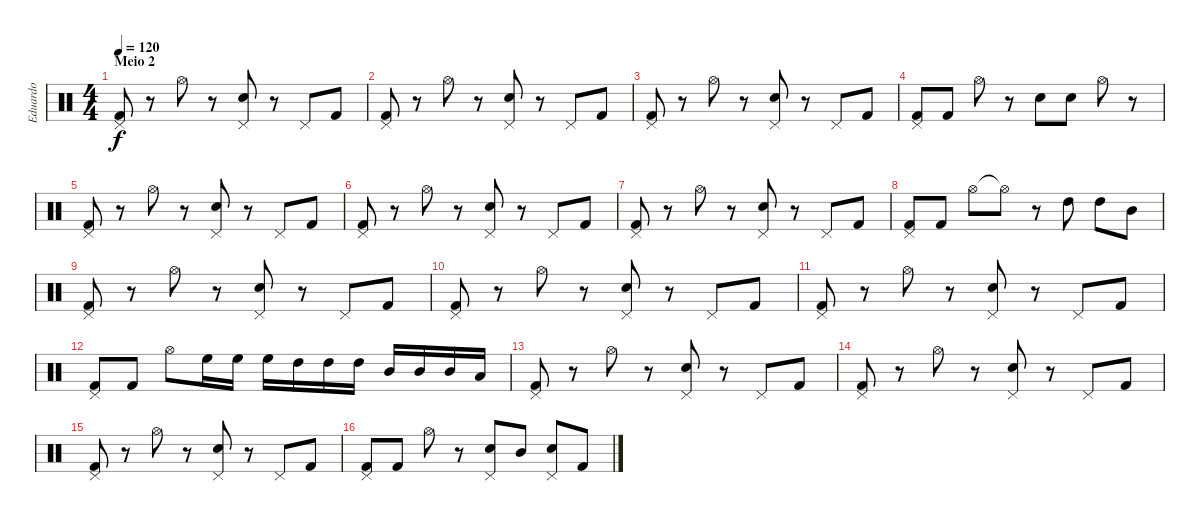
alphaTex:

\track ("Eduardo" "Eduardo") {instrument percussion}
\staff {score}
\articulation defaults
\ts (4 4)
\section ("" "Meio 2")
\tempo 120
\clef neutral
\ks c
("Pedal Hi-Hat (hit)" "Kick (hit) 2").8{dy f} r.8 "Hi-Hat (open)".8 r.8 ("Pedal Hi-Hat (hit)" "Snare (hit) 2").8 r.8 "Pedal Hi-Hat (hit)".8 "Kick (hit) 2".8 |
("Pedal Hi-Hat (hit)" "Kick (hit) 2").8 r.8 "Hi-Hat (open)".8 r.8 ("Pedal Hi-Hat (hit)" "Snare (hit) 2").8 r.8 "Pedal Hi-Hat (hit)".8 "Kick (hit) 2".8 |
("Pedal Hi-Hat (hit)" "Kick (hit) 2").8 r.8 "Hi-Hat (open)".8 r.8 ("Pedal Hi-Hat (hit)" "Snare (hit) 2").8 r.8 "Pedal Hi-Hat (hit)".8 "Kick (hit) 2".8 |
("Pedal Hi-Hat (hit)" "Kick (hit) 2").8 "Kick (hit) 2".8 "Hi-Hat (open)".8 r.8 "Snare (hit) 2".8 "Snare (hit) 2".8 "Hi-Hat (open)".8 r.8 |
("Pedal Hi-Hat (hit)" "Kick (hit) 2").8 r.8 "Hi-Hat (open)".8 r.8 ("Pedal Hi-Hat (hit)" "Snare (hit) 2").8 r.8 "Pedal Hi-Hat (hit)".8 "Kick (hit) 2".8 |
("Pedal Hi-Hat (hit)" "Kick (hit) 2").8 r.8 "Hi-Hat (open)".8 r.8 ("Pedal Hi-Hat (hit)" "Snare (hit) 2").8 r.8 "Pedal Hi-Hat (hit)".8 "Kick (hit) 2".8 |
("Pedal Hi-Hat (hit)" "Kick (hit) 2").8 r.8 "Hi-Hat (open)".8 r.8 ("Pedal Hi-Hat (hit)" "Snare (hit) 2").8 r.8 "Pedal Hi-Hat (hit)".8 "Kick (hit) 2".8 |
("Pedal Hi-Hat (hit)" "Kick (hit) 2").8 "Kick (hit) 2".8 "Hi-Hat (open)".8 "Hi-Hat (open)"{t}.8 r.8 "High Tom (hit)".8 "High Tom (hit)".8 "Mid Tom (hit)".8 |
("Pedal Hi-Hat (hit)" "Kick (hit) 2").8 r.8 "Hi-Hat (open)".8 r.8 ("Pedal Hi-Hat (hit)" "Snare (hit) 2").8 r.8 "Pedal Hi-Hat (hit)".8 "Kick (hit) 2".8 |
("Pedal Hi-Hat (hit)" "Kick (hit) 2").8 r.8 "Hi-Hat (open)".8 r.8 ("Pedal Hi-Hat (hit)" "Snare (hit) 2").8 r.8 "Pedal Hi-Hat (hit)".8 "Kick (hit) 2".8 |
("Pedal Hi-Hat (hit)" "Kick (hit) 2").8 r.8 "Hi-Hat (open)".8 r.8 ("Pedal Hi-Hat (hit)" "Snare (hit) 2").8 r.8 "Pedal Hi-Hat (hit)".8 "Kick (hit) 2".8 |
("Pedal Hi-Hat (hit)" "Kick (hit) 2").8 "Kick (hit) 2".8 "Hi-Hat (open)".8 "High Floor Tom (hit)".16 "High Floor Tom (hit)".16 "High Floor Tom (hit)".16 "High Tom (hit)".16 "High Tom (hit)".16 "High Tom (hit)".16 "Mid Tom (hit)".16 "Mid Tom (hit)".16 "Mid Tom (hit)".16 "Low Tom (hit)".16 |
("Pedal Hi-Hat (hit)" "Kick (hit) 2").8 r.8 "Hi-Hat (open)".8 r.8 ("Pedal Hi-Hat (hit)" "Snare (hit) 2").8 r.8 "Pedal Hi-Hat (hit)".8 "Kick (hit) 2".8 |
("Pedal Hi-Hat (hit)" "Kick (hit) 2").8 r.8 "Hi-Hat (open)".8 r.8 ("Pedal Hi-Hat (hit)" "Snare (hit) 2").8 r.8 "Pedal Hi-Hat (hit)".8 "Kick (hit) 2".8 |
("Pedal Hi-Hat (hit)" "Kick (hit) 2").8 r.8 "Hi-Hat (open)".8 r.8 ("Pedal Hi-Hat (hit)" "Snare (hit) 2").8 r.8 "Pedal Hi-Hat (hit)".8 "Kick (hit) 2".8 |
("Pedal Hi-Hat (hit)" "Kick (hit) 2").8 "Kick (hit) 2".8 "Hi-Hat (open)".8 r.8 ("Pedal Hi-Hat (hit)" "Snare (hit) 2").8 "Mid Tom (hit)".8 ("Pedal Hi-Hat (hit)" "Snare (hit) 2").8 "Kick (hit) 2".8
